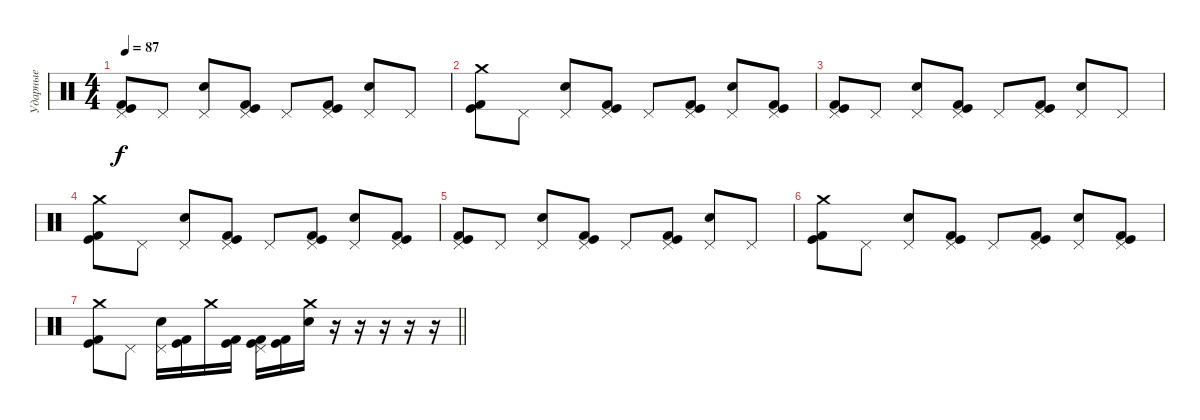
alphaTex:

\track ("Ударные" "Ударные") {instrument percussion}
\staff {score}
\articulation defaults
\ts (4 4)
\tempo 87
\clef neutral
\ks c
("Pedal Hi-Hat (hit)" "Kick (hit)" "Kick (hit) 2").8{dy f} "Pedal Hi-Hat (hit)".8 ("Pedal Hi-Hat (hit)" "Electric Snare (hit)").8 ("Pedal Hi-Hat (hit)" "Kick (hit)" "Kick (hit) 2").8 "Pedal Hi-Hat (hit)".8 ("Pedal Hi-Hat (hit)" "Kick (hit)" "Kick (hit) 2").8 ("Pedal Hi-Hat (hit)" "Electric Snare (hit)").8 "Pedal Hi-Hat (hit)".8 |
("Crash medium (hit)" "Kick (hit)" "Kick (hit) 2").8 "Pedal Hi-Hat (hit)".8 ("Pedal Hi-Hat (hit)" "Electric Snare (hit)").8 ("Pedal Hi-Hat (hit)" "Kick (hit)" "Kick (hit) 2").8 "Pedal Hi-Hat (hit)".8 ("Pedal Hi-Hat (hit)" "Kick (hit)" "Kick (hit) 2").8 ("Pedal Hi-Hat (hit)" "Electric Snare (hit)").8 ("Pedal Hi-Hat (hit)" "Kick (hit)" "Kick (hit) 2").8 |
("Pedal Hi-Hat (hit)" "Kick (hit)" "Kick (hit) 2").8 "Pedal Hi-Hat (hit)".8 ("Pedal Hi-Hat (hit)" "Electric Snare (hit)").8 ("Pedal Hi-Hat (hit)" "Kick (hit)" "Kick (hit) 2").8 "Pedal Hi-Hat (hit)".8 ("Pedal Hi-Hat (hit)" "Kick (hit)" "Kick (hit) 2").8 ("Pedal Hi-Hat (hit)" "Electric Snare (hit)").8 "Pedal Hi-Hat (hit)".8 |
("Crash medium (hit)" "Kick (hit)" "Kick (hit) 2").8 "Pedal Hi-Hat (hit)".8 ("Pedal Hi-Hat (hit)" "Electric Snare (hit)").8 ("Pedal Hi-Hat (hit)" "Kick (hit)" "Kick (hit) 2").8 "Pedal Hi-Hat (hit)".8 ("Pedal Hi-Hat (hit)" "Kick (hit)" "Kick (hit) 2").8 ("Pedal Hi-Hat (hit)" "Electric Snare (hit)").8 ("Pedal Hi-Hat (hit)" "Kick (hit)" "Kick (hit) 2").8 |
("Pedal Hi-Hat (hit)" "Kick (hit)" "Kick (hit) 2").8 "Pedal Hi-Hat (hit)".8 ("Pedal Hi-Hat (hit)" "Electric Snare (hit)").8 ("Pedal Hi-Hat (hit)" "Kick (hit)" "Kick (hit) 2").8 "Pedal Hi-Hat (hit)".8 ("Pedal Hi-Hat (hit)" "Kick (hit)" "Kick (hit) 2").8 ("Pedal Hi-Hat (hit)" "Electric Snare (hit)").8 "Pedal Hi-Hat (hit)".8 |
("Crash medium (hit)" "Kick (hit)" "Kick (hit) 2").8 "Pedal Hi-Hat (hit)".8 ("Pedal Hi-Hat (hit)" "Electric Snare (hit)").8 ("Pedal Hi-Hat (hit)" "Kick (hit)" "Kick (hit) 2").8 "Pedal Hi-Hat (hit)".8 ("Pedal Hi-Hat (hit)" "Kick (hit)" "Kick (hit) 2").8 ("Pedal Hi-Hat (hit)" "Electric Snare (hit)").8 ("Pedal Hi-Hat (hit)" "Kick (hit)" "Kick (hit) 2").8 |
\barLineRight lightlight
("Crash medium (hit)" "Kick (hit)" "Kick (hit) 2").8 "Pedal Hi-Hat (hit)".8 ("Pedal Hi-Hat (hit)" "Electric Snare (hit)").16 ("Kick (hit)" "Kick (hit) 2").16 "Crash medium (hit)".16 ("Kick (hit)" "Kick (hit) 2").16 ("Pedal Hi-Hat (hit)" "Kick (hit)" "Kick (hit) 2").16 ("Kick (hit)" "Kick (hit) 2").16 ("Crash medium (hit)" "Electric Snare (hit)").16 r.16 r.16 r.16 r.16 r.16
